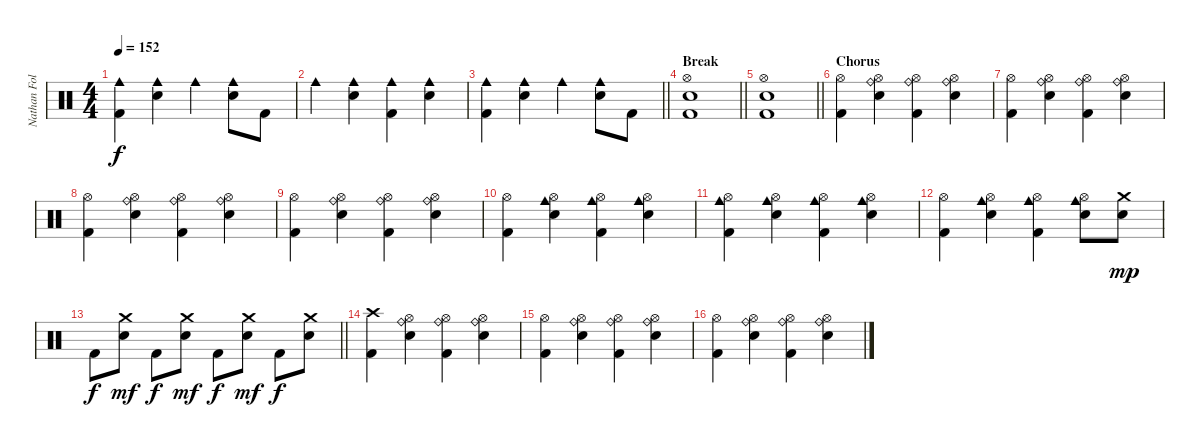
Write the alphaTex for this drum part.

\track ("Nathan Followill" "Nathan Fol") {instrument percussion}
\staff {score}
\articulation defaults
\ts (4 4)
\tempo 152
\clef neutral
\ks c
("Cowbell medium (hit)" "Kick (hit) 2").4{dy f} ("Cowbell medium (hit)" "Electric Snare (hit)").4 "Cowbell medium (hit)".4 ("Cowbell medium (hit)" "Electric Snare (hit)").8 "Kick (hit) 2".8 |
"Cowbell medium (hit)".4 ("Cowbell medium (hit)" "Electric Snare (hit)").4 ("Cowbell medium (hit)" "Kick (hit) 2").4 ("Cowbell medium (hit)" "Electric Snare (hit)").4 |
\barLineRight lightlight
("Cowbell medium (hit)" "Kick (hit) 2").4 ("Cowbell medium (hit)" "Electric Snare (hit)").4 "Cowbell medium (hit)".4 ("Cowbell medium (hit)" "Electric Snare (hit)").8 "Kick (hit) 2".8 |
\section ("" "Break")
\barLineRight lightlight
("Hi-Hat (open)" "Electric Snare (hit)" "Kick (hit) 2").1 |
\barLineRight lightlight
("Hi-Hat (open)" "Electric Snare (hit)" "Kick (hit) 2").1 |
\section ("" "Chorus")
("Hi-Hat (open)" "Kick (hit) 2").4 ("Hi-Hat (open)" "Ride (bell)" "Electric Snare (hit)").4 ("Hi-Hat (open)" "Ride (bell)" "Kick (hit) 2").4 ("Hi-Hat (open)" "Ride (bell)" "Electric Snare (hit)").4 |
("Hi-Hat (open)" "Kick (hit) 2").4 ("Hi-Hat (open)" "Ride (bell)" "Electric Snare (hit)").4 ("Hi-Hat (open)" "Ride (bell)" "Kick (hit) 2").4 ("Hi-Hat (open)" "Ride (bell)" "Electric Snare (hit)").4 |
("Hi-Hat (open)" "Kick (hit) 2").4 ("Hi-Hat (open)" "Ride (bell)" "Electric Snare (hit)").4 ("Hi-Hat (open)" "Ride (bell)" "Kick (hit) 2").4 ("Hi-Hat (open)" "Ride (bell)" "Electric Snare (hit)").4 |
("Hi-Hat (open)" "Kick (hit) 2").4 ("Hi-Hat (open)" "Ride (bell)" "Electric Snare (hit)").4 ("Hi-Hat (open)" "Ride (bell)" "Kick (hit) 2").4 ("Hi-Hat (open)" "Ride (bell)" "Electric Snare (hit)").4 |
("Hi-Hat (open)" "Kick (hit) 2").4 ("Hi-Hat (open)" "Cowbell medium (hit)" "Electric Snare (hit)").4 ("Hi-Hat (open)" "Cowbell medium (hit)" "Kick (hit) 2").4 ("Hi-Hat (open)" "Cowbell medium (hit)" "Electric Snare (hit)").4 |
("Hi-Hat (open)" "Cowbell medium (hit)" "Kick (hit) 2").4 ("Hi-Hat (open)" "Cowbell medium (hit)" "Electric Snare (hit)").4 ("Hi-Hat (open)" "Cowbell medium (hit)" "Kick (hit) 2").4 ("Hi-Hat (open)" "Cowbell medium (hit)" "Electric Snare (hit)").4 |
("Hi-Hat (open)" "Kick (hit) 2").4 ("Hi-Hat (open)" "Cowbell medium (hit)" "Electric Snare (hit)").4 ("Hi-Hat (open)" "Cowbell medium (hit)" "Kick (hit) 2").4 ("Hi-Hat (open)" "Cowbell medium (hit)" "Electric Snare (hit)").8 ("Crash medium (hit)" "Electric Snare (hit)").8{dy mp} |
\barLineRight lightlight "Kick (hit) 2".8{dy f}
("Crash medium (hit)" "Electric Snare (hit)").8{dy mf} "Kick (hit) 2".8{dy f} ("Crash medium (hit)" "Electric Snare (hit)").8{dy mf} "Kick (hit) 2".8{dy f} ("Crash medium (hit)" "Electric Snare (hit)").8{dy mf} "Kick (hit) 2".8{dy f} ("Crash medium (hit)" "Electric Snare (hit)").8 |
\section ("" "")
("Crash high (hit)" "Kick (hit) 2").4 ("Hi-Hat (open)" "Ride (bell)" "Electric Snare (hit)").4 ("Hi-Hat (open)" "Ride (bell)" "Kick (hit) 2").4 ("Hi-Hat (open)" "Ride (bell)" "Electric Snare (hit)").4 |
("Hi-Hat (open)" "Kick (hit) 2").4 ("Hi-Hat (open)" "Ride (bell)" "Electric Snare (hit)").4 ("Hi-Hat (open)" "Ride (bell)" "Kick (hit) 2").4 ("Hi-Hat (open)" "Ride (bell)" "Electric Snare (hit)").4 |
("Hi-Hat (open)" "Kick (hit) 2").4 ("Hi-Hat (open)" "Ride (bell)" "Electric Snare (hit)").4 ("Hi-Hat (open)" "Ride (bell)" "Kick (hit) 2").4 ("Hi-Hat (open)" "Ride (bell)" "Electric Snare (hit)").4
